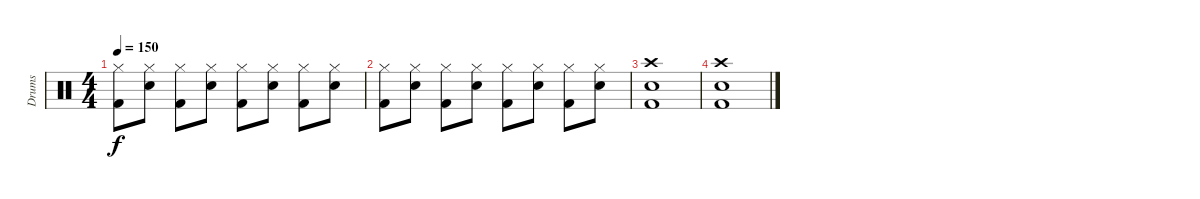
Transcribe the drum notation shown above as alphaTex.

\track ("Drums" "Drums") {instrument percussion}
\staff {score}
\articulation defaults
\ts (4 4)
\tempo 150
\clef neutral
\ks c
("Hi-Hat (closed)" "Kick (hit) 2").8{dy f} ("Hi-Hat (closed)" "Snare (hit) 2").8 ("Hi-Hat (closed)" "Kick (hit) 2").8 ("Hi-Hat (closed)" "Snare (hit) 2").8 ("Hi-Hat (closed)" "Kick (hit) 2").8 ("Hi-Hat (closed)" "Snare (hit) 2").8 ("Hi-Hat (closed)" "Kick (hit) 2").8 ("Hi-Hat (closed)" "Snare (hit) 2").8 |
("Hi-Hat (closed)" "Kick (hit) 2").8 ("Hi-Hat (closed)" "Snare (hit) 2").8 ("Hi-Hat (closed)" "Kick (hit) 2").8 ("Hi-Hat (closed)" "Snare (hit) 2").8 ("Hi-Hat (closed)" "Kick (hit) 2").8 ("Hi-Hat (closed)" "Snare (hit) 2").8 ("Hi-Hat (closed)" "Kick (hit) 2").8 ("Hi-Hat (closed)" "Snare (hit) 2").8 |
("Crash high (hit)" "Snare (hit) 2" "Kick (hit) 2").1 |
("Crash high (hit)" "Snare (hit) 2" "Kick (hit) 2").1
